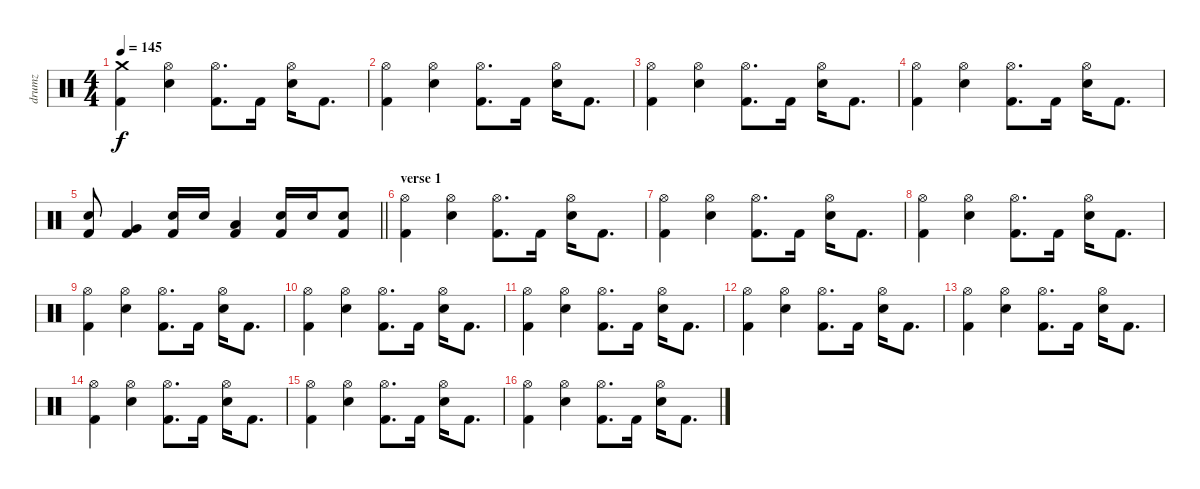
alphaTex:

\track ("drumz" "drumz") {instrument percussion}
\staff {score}
\articulation defaults
\ts (4 4)
\tempo 145
\clef neutral
\ks c
("Crash medium (hit)" "Kick (hit) 2").4{dy f} ("Hi-Hat (open)" "Electric Snare (hit)").4 ("Hi-Hat (open)" "Kick (hit) 2").8{d} "Kick (hit) 2".16 ("Hi-Hat (open)" "Electric Snare (hit)").16 "Kick (hit) 2".8{d} |
("Hi-Hat (open)" "Kick (hit) 2").4 ("Hi-Hat (open)" "Electric Snare (hit)").4 ("Hi-Hat (open)" "Kick (hit) 2").8{d} "Kick (hit) 2".16 ("Hi-Hat (open)" "Electric Snare (hit)").16 "Kick (hit) 2".8{d} |
("Hi-Hat (open)" "Kick (hit) 2").4 ("Hi-Hat (open)" "Electric Snare (hit)").4 ("Hi-Hat (open)" "Kick (hit) 2").8{d} "Kick (hit) 2".16 ("Hi-Hat (open)" "Electric Snare (hit)").16 "Kick (hit) 2".8{d} |
("Hi-Hat (open)" "Kick (hit) 2").4 ("Hi-Hat (open)" "Electric Snare (hit)").4 ("Hi-Hat (open)" "Kick (hit) 2").8{d} "Kick (hit) 2".16 ("Hi-Hat (open)" "Electric Snare (hit)").16 "Kick (hit) 2".8{d} |
\barLineRight lightlight
("Electric Snare (hit)" "Kick (hit) 2").8 ("Very Low Tom (hit)" "Kick (hit) 2").4 ("Electric Snare (hit)" "Kick (hit) 2").16 "Electric Snare (hit)".16 ("Low Floor Tom (hit)" "Kick (hit) 2").4 ("Electric Snare (hit)" "Kick (hit) 2").16 "Electric Snare (hit)".16 ("Electric Snare (hit)" "Kick (hit) 2").8 |
\section ("" "verse 1")
("Hi-Hat (open)" "Kick (hit) 2").4 ("Hi-Hat (open)" "Electric Snare (hit)").4 ("Hi-Hat (open)" "Kick (hit) 2").8{d} "Kick (hit) 2".16 ("Hi-Hat (open)" "Electric Snare (hit)").16 "Kick (hit) 2".8{d} |
("Hi-Hat (open)" "Kick (hit) 2").4 ("Hi-Hat (open)" "Electric Snare (hit)").4 ("Hi-Hat (open)" "Kick (hit) 2").8{d} "Kick (hit) 2".16 ("Hi-Hat (open)" "Electric Snare (hit)").16 "Kick (hit) 2".8{d} |
("Hi-Hat (open)" "Kick (hit) 2").4 ("Hi-Hat (open)" "Electric Snare (hit)").4 ("Hi-Hat (open)" "Kick (hit) 2").8{d} "Kick (hit) 2".16 ("Hi-Hat (open)" "Electric Snare (hit)").16 "Kick (hit) 2".8{d} |
("Hi-Hat (open)" "Kick (hit) 2").4 ("Hi-Hat (open)" "Electric Snare (hit)").4 ("Hi-Hat (open)" "Kick (hit) 2").8{d} "Kick (hit) 2".16 ("Hi-Hat (open)" "Electric Snare (hit)").16 "Kick (hit) 2".8{d} |
("Hi-Hat (open)" "Kick (hit) 2").4 ("Hi-Hat (open)" "Electric Snare (hit)").4 ("Hi-Hat (open)" "Kick (hit) 2").8{d} "Kick (hit) 2".16 ("Hi-Hat (open)" "Electric Snare (hit)").16 "Kick (hit) 2".8{d} |
("Hi-Hat (open)" "Kick (hit) 2").4 ("Hi-Hat (open)" "Electric Snare (hit)").4 ("Hi-Hat (open)" "Kick (hit) 2").8{d} "Kick (hit) 2".16 ("Hi-Hat (open)" "Electric Snare (hit)").16 "Kick (hit) 2".8{d} |
("Hi-Hat (open)" "Kick (hit) 2").4 ("Hi-Hat (open)" "Electric Snare (hit)").4 ("Hi-Hat (open)" "Kick (hit) 2").8{d} "Kick (hit) 2".16 ("Hi-Hat (open)" "Electric Snare (hit)").16 "Kick (hit) 2".8{d} |
("Hi-Hat (open)" "Kick (hit) 2").4 ("Hi-Hat (open)" "Electric Snare (hit)").4 ("Hi-Hat (open)" "Kick (hit) 2").8{d} "Kick (hit) 2".16 ("Hi-Hat (open)" "Electric Snare (hit)").16 "Kick (hit) 2".8{d} |
("Hi-Hat (open)" "Kick (hit) 2").4 ("Hi-Hat (open)" "Electric Snare (hit)").4 ("Hi-Hat (open)" "Kick (hit) 2").8{d} "Kick (hit) 2".16 ("Hi-Hat (open)" "Electric Snare (hit)").16 "Kick (hit) 2".8{d} |
("Hi-Hat (open)" "Kick (hit) 2").4 ("Hi-Hat (open)" "Electric Snare (hit)").4 ("Hi-Hat (open)" "Kick (hit) 2").8{d} "Kick (hit) 2".16 ("Hi-Hat (open)" "Electric Snare (hit)").16 "Kick (hit) 2".8{d} |
("Hi-Hat (open)" "Kick (hit) 2").4 ("Hi-Hat (open)" "Electric Snare (hit)").4 ("Hi-Hat (open)" "Kick (hit) 2").8{d} "Kick (hit) 2".16 ("Hi-Hat (open)" "Electric Snare (hit)").16 "Kick (hit) 2".8{d}
